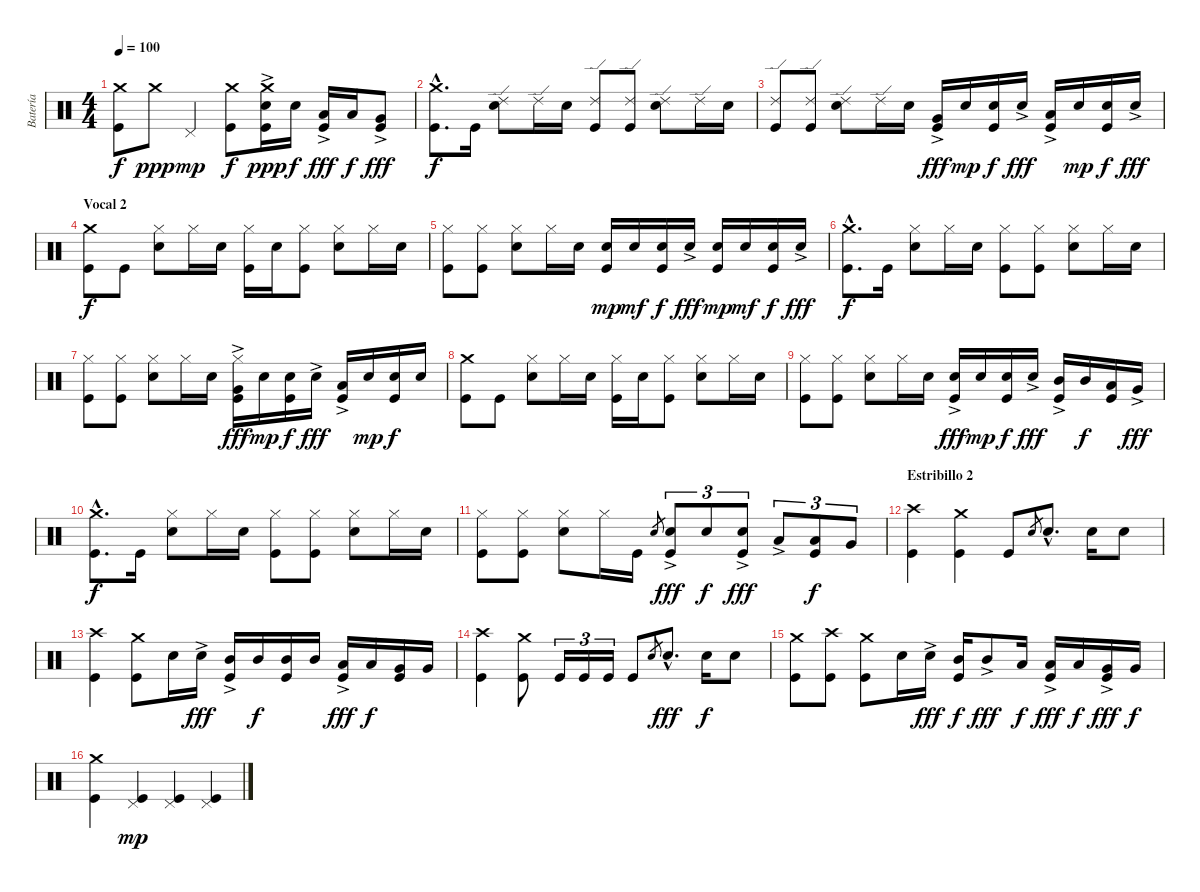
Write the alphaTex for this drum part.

\track ("Batería" "Batería") {instrument percussion}
\staff {score}
\articulation defaults
\ts (4 4)
\tempo 100
\clef neutral
\ks c
("Kick (hit)" "Crash medium (hit)").8{dy f} "Crash medium (hit)".8{dy ppp} "Pedal Hi-Hat (hit)".4{dy mp} ("Kick (hit)" "Crash medium (hit)").8{dy f} ("Kick (hit)" "Electric Snare (hit)"{ac} "Crash medium (hit)").16{dy ppp} "Electric Snare (hit)".16{dy f} ("Kick (hit)" "Low Tom (hit)"{ac}).16{dy fff} "Low Tom (hit)".16{dy f} ("Kick (hit)" "Very Low Tom (hit)"{ac}).8{dy fff} |
("Kick (hit)"{hac} "Crash medium (hit)"{hac}).8{d dy f} "Kick (hit)".16 ("Electric Snare (hit)" "Ride (edge) 2").8 "Ride (edge) 2".16 "Electric Snare (hit)".16 ("Kick (hit)" "Ride (edge) 2").8 ("Kick (hit)" "Ride (edge) 2").8 ("Electric Snare (hit)" "Ride (edge) 2").8 "Ride (edge) 2".16 "Electric Snare (hit)".16 |
("Kick (hit)" "Ride (edge) 2").8 ("Kick (hit)" "Ride (edge) 2").8 ("Electric Snare (hit)" "Ride (edge) 2").8 "Ride (edge) 2".16 "Electric Snare (hit)".16 ("Kick (hit)" "Very Low Tom (hit)"{ac}).16{dy fff} "Electric Snare (hit)".16{dy mp} ("Kick (hit)" "Electric Snare (hit)").16{dy f} "Electric Snare (hit)"{ac}.16{dy fff} ("Kick (hit)" "Low Tom (hit)"{ac}).16 "Electric Snare (hit)".16{dy mp} ("Kick (hit)" "Electric Snare (hit)").16{dy f} "Electric Snare (hit)"{ac}.16{dy fff} |
\section ("" "Vocal 2")
("Kick (hit)" "Crash medium (hit)").8{dy f} "Kick (hit)".8 ("Electric Snare (hit)" "Hi-Hat (closed)").8 "Hi-Hat (closed)".16 "Electric Snare (hit)".16 ("Kick (hit)" "Hi-Hat (closed)").16 "Electric Snare (hit)".16 ("Kick (hit)" "Hi-Hat (closed)").8 ("Electric Snare (hit)" "Hi-Hat (closed)").8 "Hi-Hat (closed)".16 "Electric Snare (hit)".16 |
("Kick (hit)" "Hi-Hat (closed)").8 ("Kick (hit)" "Hi-Hat (closed)").8 ("Electric Snare (hit)" "Hi-Hat (closed)").8 "Hi-Hat (closed)".16 "Electric Snare (hit)".16 ("Kick (hit)" "Electric Snare (hit)").16{dy mp} "Electric Snare (hit)".16{dy mf} ("Kick (hit)" "Electric Snare (hit)").16{dy f} "Electric Snare (hit)"{ac}.16{dy fff} ("Kick (hit)" "Electric Snare (hit)").16{dy mp} "Electric Snare (hit)".16{dy mf} ("Kick (hit)" "Electric Snare (hit)").16{dy f} "Electric Snare (hit)"{ac}.16{dy fff} |
("Kick (hit)"{hac} "Crash medium (hit)"{hac}).8{d dy f} "Kick (hit)".16 ("Electric Snare (hit)" "Hi-Hat (closed)").8 "Hi-Hat (closed)".16 "Electric Snare (hit)".16 ("Kick (hit)" "Hi-Hat (closed)").8 ("Kick (hit)" "Hi-Hat (closed)").8 ("Electric Snare (hit)" "Hi-Hat (closed)").8 "Hi-Hat (closed)".16 "Electric Snare (hit)".16 |
("Kick (hit)" "Hi-Hat (closed)").8 ("Kick (hit)" "Hi-Hat (closed)").8 ("Electric Snare (hit)" "Hi-Hat (closed)").8 "Hi-Hat (closed)".16 "Electric Snare (hit)".16 ("Kick (hit)" "Very Low Tom (hit)"{ac} "Hi-Hat (closed)").16{dy fff} "Electric Snare (hit)".16{dy mp} ("Kick (hit)" "Electric Snare (hit)").16{dy f} "Electric Snare (hit)"{ac}.16{dy fff} ("Kick (hit)" "Low Tom (hit)"{ac}).16 "Electric Snare (hit)".16{dy mp} ("Kick (hit)" "Electric Snare (hit)").16{dy f} "Electric Snare (hit)".16 |
("Kick (hit)" "Crash medium (hit)").8 "Kick (hit)".8 ("Electric Snare (hit)" "Hi-Hat (closed)").8 "Hi-Hat (closed)".16 "Electric Snare (hit)".16 ("Kick (hit)" "Hi-Hat (closed)").16 "Electric Snare (hit)".16 ("Kick (hit)" "Hi-Hat (closed)").8 ("Electric Snare (hit)" "Hi-Hat (closed)").8 "Hi-Hat (closed)".16 "Electric Snare (hit)".16 |
("Kick (hit)" "Hi-Hat (closed)").8 ("Kick (hit)" "Hi-Hat (closed)").8 ("Electric Snare (hit)" "Hi-Hat (closed)").8 "Hi-Hat (closed)".16 "Electric Snare (hit)".16 ("Kick (hit)" "Electric Snare (hit)"{ac}).16{dy fff} "Electric Snare (hit)".16{dy mp} ("Kick (hit)" "Electric Snare (hit)").16{dy f} "Electric Snare (hit)"{ac}.16{dy fff} ("Kick (hit)" "Mid Tom (hit)"{ac}).16 "Mid Tom (hit)".16{dy f} ("Kick (hit)" "Low Tom (hit)").16 "Very Low Tom (hit)"{ac}.16{dy fff} |
("Kick (hit)"{hac} "Crash medium (hit)"{hac}).8{d dy f} "Kick (hit)".16 ("Electric Snare (hit)" "Hi-Hat (closed)").8 "Hi-Hat (closed)".16 "Electric Snare (hit)".16 ("Kick (hit)" "Hi-Hat (closed)").8 ("Kick (hit)" "Hi-Hat (closed)").8 ("Electric Snare (hit)" "Hi-Hat (closed)").8 "Hi-Hat (closed)".16 "Electric Snare (hit)".16 |
("Kick (hit)" "Hi-Hat (closed)").8 ("Kick (hit)" "Hi-Hat (closed)").8 ("Electric Snare (hit)" "Hi-Hat (closed)").8 "Hi-Hat (closed)".16 "Kick (hit)".16 "Electric Snare (hit)".8{gr} ("Kick (hit)" "Electric Snare (hit)"{ac}).8{tu (3 2) dy fff} "Electric Snare (hit)".8{tu (3 2) dy f} ("Kick (hit)" "Electric Snare (hit)"{ac}).8{tu (3 2) dy fff} "Low Tom (hit)"{ac}.8{tu (3 2)} ("Kick (hit)" "Low Tom (hit)").8{tu (3 2) dy f} "Very Low Tom (hit)".8{tu (3 2)} |
\section ("" "Estribillo 2")
("Kick (hit)" "Crash high (hit)").4 ("Kick (hit)" "Crash medium (hit)").4 "Kick (hit)".8 "Electric Snare (hit)".8{gr} "Electric Snare (hit)"{hac}.8{d} "Electric Snare (hit)".16 "Electric Snare (hit)".8 |
("Kick (hit)" "Crash high (hit)").4 ("Kick (hit)" "Crash medium (hit)").8 "Electric Snare (hit)".16 "Electric Snare (hit)"{ac}.16{dy fff} ("Kick (hit)" "Mid Tom (hit)"{ac}).16 "Mid Tom (hit)".16{dy f} ("Kick (hit)" "Mid Tom (hit)").16 "Mid Tom (hit)".16 ("Kick (hit)" "Low Tom (hit)"{ac}).16{dy fff} "Low Tom (hit)".16{dy f} ("Kick (hit)" "Very Low Tom (hit)").16 "Very Low Tom (hit)".16 |
("Kick (hit)" "Crash high (hit)").4 ("Kick (hit)" "Crash medium (hit)").8 "Kick (hit)".16{tu (3 2)} "Kick (hit)".16{tu (3 2)} "Kick (hit)".16{tu (3 2)} "Kick (hit)".8 "Electric Snare (hit)".8{gr} "Electric Snare (hit)"{hac}.8{d dy fff} "Electric Snare (hit)".16{dy f} "Electric Snare (hit)".8 |
("Kick (hit)" "Crash medium (hit)").8 ("Kick (hit)" "Crash high (hit)").8 ("Kick (hit)" "Crash medium (hit)").8 "Electric Snare (hit)".16 "Electric Snare (hit)"{ac}.16{dy fff} ("Kick (hit)" "Mid Tom (hit)").16{dy f} "Mid Tom (hit)"{ac}.8{dy fff} "Low Tom (hit)".16{dy f} ("Kick (hit)" "Low Tom (hit)"{ac}).16{dy fff} "Low Tom (hit)".16{dy f} ("Kick (hit)" "Very Low Tom (hit)"{ac}).16{dy fff} "Very Low Tom (hit)".16{dy f} |
("Kick (hit)" "Crash medium (hit)").4 ("Kick (hit)" "Pedal Hi-Hat (hit)").4{dy mp} ("Kick (hit)" "Pedal Hi-Hat (hit)").4 ("Kick (hit)" "Pedal Hi-Hat (hit)").4
